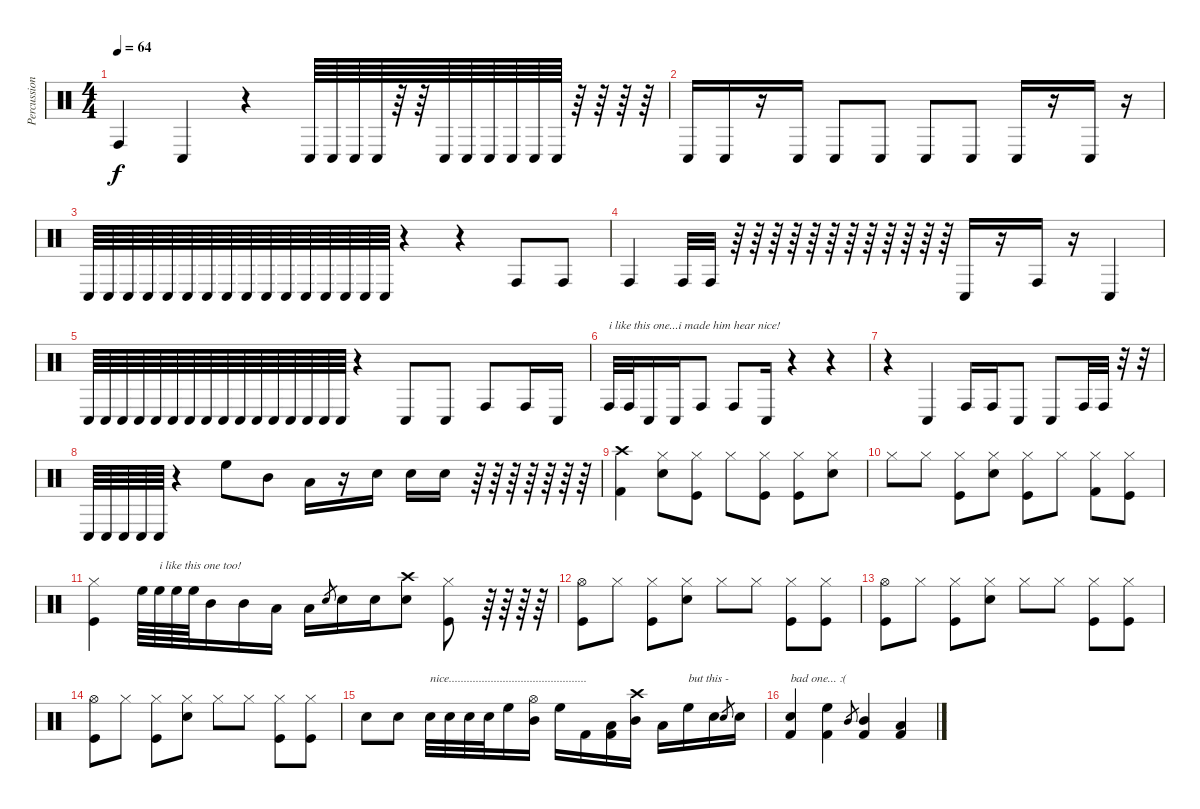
\track ("Percussion" "Percussion") {instrument percussion}
\staff {score}
\articulation defaults
\ts (4 4)
\tempo 64
\clef neutral
\ks c "Conga high (hit)".4{dy f} "Conga low (hit)".4
r.4 "Conga low (hit)".64 "Conga low (hit)".64 "Conga low (hit)".64 "Conga low (hit)".64 r.64 r.64 "Conga low (hit)".64 "Conga low (hit)".64 "Conga low (hit)".64 "Conga low (hit)".64 "Conga low (hit)".64 "Conga low (hit)".64 r.64 r.64 r.64 r.64 |
"Conga low (hit)".16 "Conga low (hit)".16 r.16 "Conga low (hit)".16 "Conga low (hit)".8 "Conga low (hit)".8 "Conga low (hit)".8 "Conga low (hit)".8 "Conga low (hit)".16 r.16 "Conga low (hit)".16 r.16 |
"Conga low (hit)".64 "Conga low (hit)".64 "Conga low (hit)".64 "Conga low (hit)".64 "Conga low (hit)".64 "Conga low (hit)".64 "Conga low (hit)".64 "Conga low (hit)".64 "Conga low (hit)".64 "Conga low (hit)".64 "Conga low (hit)".64 "Conga low (hit)".64 "Conga low (hit)".64 "Conga low (hit)".64 "Conga low (hit)".64 "Conga low (hit)".64 r.4 r.4 "Conga high (hit)".8 "Conga high (hit)".8 |
"Conga high (hit)".4 "Conga high (hit)".32 "Conga high (hit)".32 r.64 r.64 r.64 r.64 r.64 r.64 r.64 r.64 r.64 r.64 r.64 r.64 "Conga low (hit)".16 r.16 "Conga high (hit)".16 r.16 "Conga low (hit)".4 |
"Conga low (hit)".64 "Conga low (hit)".64 "Conga low (hit)".64 "Conga low (hit)".64 "Conga low (hit)".64 "Conga low (hit)".64 "Conga low (hit)".64 "Conga low (hit)".64 "Conga low (hit)".64 "Conga low (hit)".64 "Conga low (hit)".64 "Conga low (hit)".64 "Conga low (hit)".64 "Conga low (hit)".64 "Conga low (hit)".64 "Conga low (hit)".64 r.4 "Conga low (hit)".8 "Conga low (hit)".8 "Conga high (hit)".8 "Conga high (hit)".16 "Conga low (hit)".16 |
"Conga high (hit)".32{txt "i like this one...i made him hear nice!"} "Conga high (hit)".32 "Conga low (hit)".16 "Conga low (hit)".16 "Conga high (hit)".8 "Conga high (hit)".8 "Conga low (hit)".16 r.4 r.4 |
r.4 "Conga low (hit)".4 "Conga high (hit)".16 "Conga high (hit)".16 "Conga low (hit)".8 "Conga low (hit)".8 "Conga high (hit)".32 "Conga high (hit)".32 r.32 r.32 |
"Conga low (hit)".64 "Conga low (hit)".64 "Conga low (hit)".64 "Conga low (hit)".64 "Conga low (hit)".64 r.4 "High Floor Tom (hit)".8 "Mid Tom (hit)".8 "Low Tom (hit)".16 r.16 "Snare (hit) 2".16 "Snare (hit) 2".16 "Snare (hit) 2".16 r.64 r.64 r.64 r.64 r.64 r.64 r.64 |
("Crash high (hit)" "Kick (hit) 2").4 ("Hi-Hat (closed)" "Snare (hit) 2").8 ("Hi-Hat (closed)" "Kick (hit)").8 "Hi-Hat (closed)".8 ("Hi-Hat (closed)" "Kick (hit)").8 ("Hi-Hat (closed)" "Kick (hit)").8 ("Hi-Hat (closed)" "Snare (hit) 2").8 |
"Hi-Hat (closed)".8 "Hi-Hat (closed)".8 ("Hi-Hat (closed)" "Kick (hit)").8 ("Hi-Hat (closed)" "Snare (hit) 2").8 ("Hi-Hat (closed)" "Kick (hit)").8 "Hi-Hat (closed)".8 ("Hi-Hat (closed)" "Kick (hit) 2").8 ("Hi-Hat (closed)" "Kick (hit)").8 |
("Hi-Hat (closed)" "Kick (hit)").4 "High Floor Tom (hit)".64 "High Floor Tom (hit)".64{txt "i like this one too!"} "High Floor Tom (hit)".64 "High Floor Tom (hit)".64 "Mid Tom (hit)".16 "Mid Tom (hit)".16 "Low Tom (hit)".16 "Low Floor Tom (hit)".16 "Snare (hit) 2".8{gr} "Snare (hit) 2".16 "Snare (hit) 2".16 ("Crash high (hit)" "Snare (hit) 2").8 ("Hi-Hat (closed)" "Kick (hit)").8 r.64 r.64 r.64 r.64 |
("Hi-Hat (open)" "Kick (hit)").8 "Hi-Hat (closed)".8 ("Hi-Hat (closed)" "Kick (hit)").8 ("Snare (hit) 2" "Hi-Hat (closed)").8 "Hi-Hat (closed)".8 "Hi-Hat (closed)".8 ("Hi-Hat (closed)" "Kick (hit)").8 ("Hi-Hat (closed)" "Kick (hit)").8 |
("Hi-Hat (open)" "Kick (hit)").8 "Hi-Hat (closed)".8 ("Hi-Hat (closed)" "Kick (hit)").8 ("Snare (hit) 2" "Hi-Hat (closed)").8 "Hi-Hat (closed)".8 "Hi-Hat (closed)".8 ("Hi-Hat (closed)" "Kick (hit)").8 ("Hi-Hat (closed)" "Kick (hit)").8 |
("Hi-Hat (open)" "Kick (hit)").8 "Hi-Hat (closed)".8 ("Hi-Hat (closed)" "Kick (hit)").8 ("Snare (hit) 2" "Hi-Hat (closed)").8 "Hi-Hat (closed)".8 "Hi-Hat (closed)".8 ("Hi-Hat (closed)" "Kick (hit)").8 ("Hi-Hat (closed)" "Kick (hit)").8 |
"Snare (hit) 2".8 "Snare (hit) 2".8 "Snare (hit) 2".32{txt "nice.............................................."} "Snare (hit) 2".32 "Snare (hit) 2".32 "Snare (hit) 2".32 "High Floor Tom (hit)".16 ("Mid Tom (hit)" "Hi-Hat (open)").16 "High Floor Tom (hit)".16 "Kick (hit) 2".16 ("Kick (hit) 2" "Low Tom (hit)").16 ("Crash high (hit)" "Mid Tom (hit)").16 "Low Tom (hit)".16 "High Floor Tom (hit)".16{txt "but this -"} "Snare (hit) 2".16 "Snare (hit) 2".8{gr} "Snare (hit) 2".16 |
("Snare (hit) 2" "Kick (hit) 2").4{txt "bad one... :("} ("High Floor Tom (hit)" "Kick (hit) 2").4 "Mid Tom (hit)".8{gr} ("Mid Tom (hit)" "Kick (hit) 2").4 ("Low Tom (hit)" "Kick (hit) 2").4
